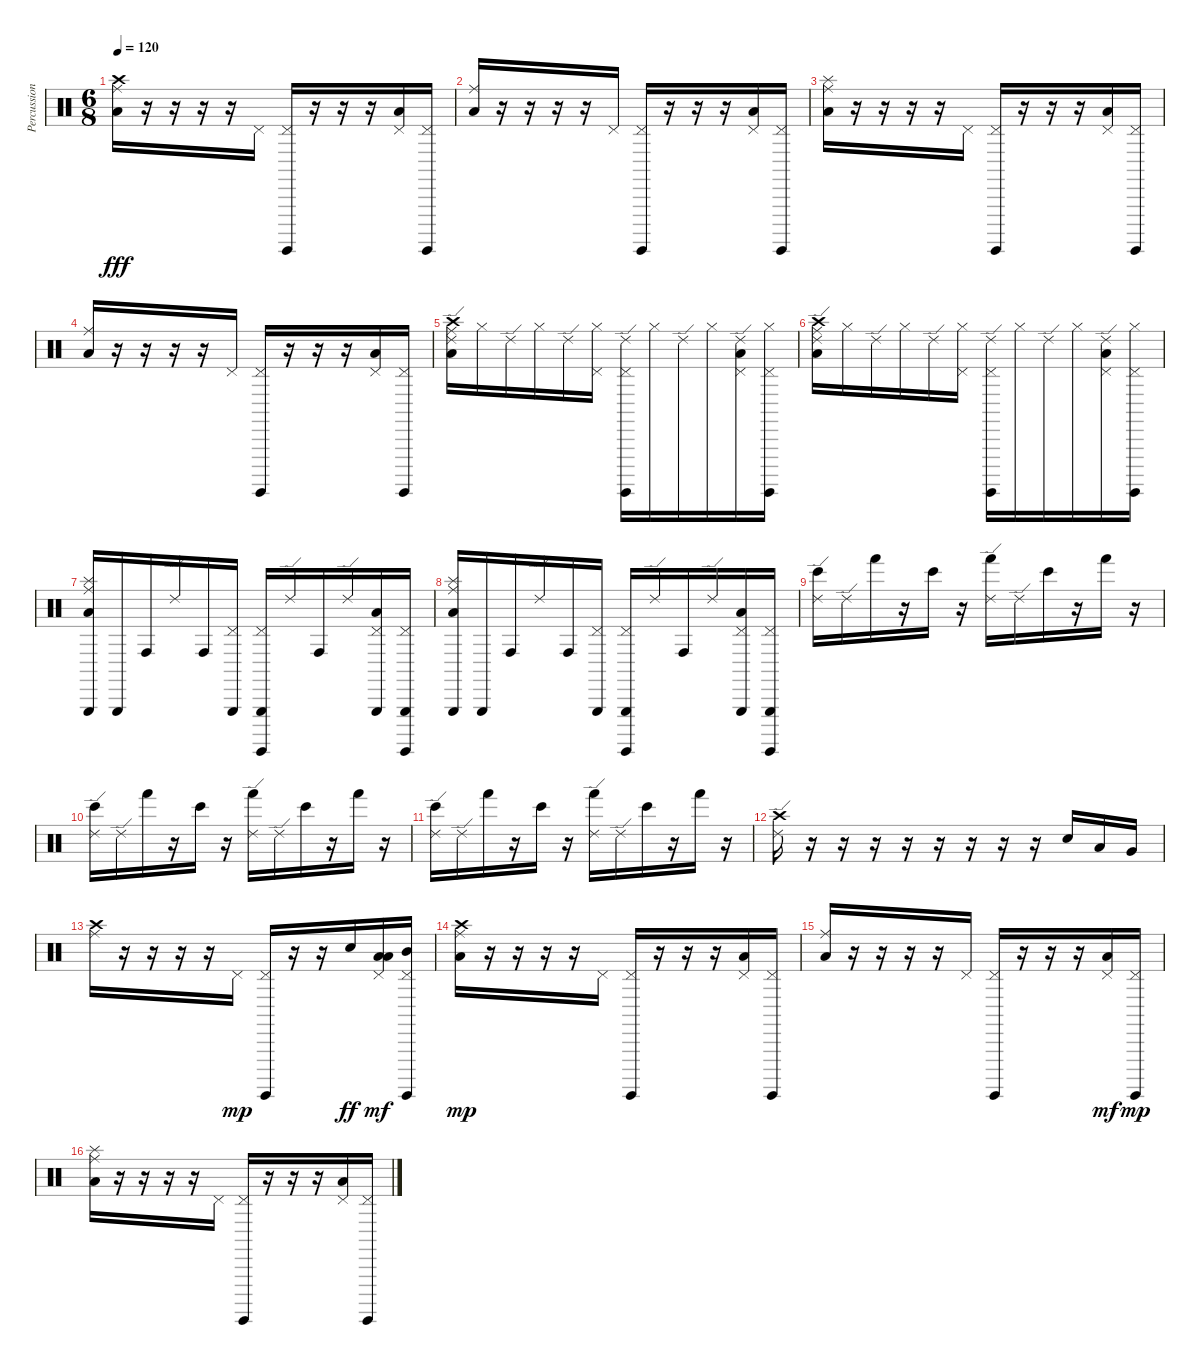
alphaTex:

\track ("Percussions" "Percussion") {instrument percussion}
\staff {score}
\articulation defaults
\ts (6 8)
\tempo 120
\clef neutral
\ks c
("Low Tom (hit)" "Ride (middle)" "Crash high (hit)").16{dy fff} r.16 r.16 r.16 r.16 "Pedal Hi-Hat (hit)".16 ("Surdo (hit)" "Pedal Hi-Hat (hit)").16 r.16 r.16 r.16 ("Low Tom (hit)" "Pedal Hi-Hat (hit)").16 ("Surdo (hit)" "Pedal Hi-Hat (hit)").16 |
("Low Tom (hit)" "Ride (middle)").16 r.16 r.16 r.16 r.16 "Pedal Hi-Hat (hit)".16 ("Surdo (hit)" "Pedal Hi-Hat (hit)").16 r.16 r.16 r.16 ("Low Tom (hit)" "Pedal Hi-Hat (hit)").16 ("Surdo (hit)" "Pedal Hi-Hat (hit)").16 |
("Low Tom (hit)" "Ride (middle)" "Splash (hit)").16 r.16 r.16 r.16 r.16 "Pedal Hi-Hat (hit)".16 ("Surdo (hit)" "Pedal Hi-Hat (hit)").16 r.16 r.16 r.16 ("Low Tom (hit)" "Pedal Hi-Hat (hit)").16 ("Surdo (hit)" "Pedal Hi-Hat (hit)").16 |
("Low Tom (hit)" "Ride (middle)").16 r.16 r.16 r.16 r.16 "Pedal Hi-Hat (hit)".16 ("Surdo (hit)" "Pedal Hi-Hat (hit)").16 r.16 r.16 r.16 ("Low Tom (hit)" "Pedal Hi-Hat (hit)").16 ("Surdo (hit)" "Pedal Hi-Hat (hit)").16 |
("Low Tom (hit)" "Ride (middle)" "Ride (edge) 2" "Crash high (hit)").16 "Hi-Hat (closed)".16 "Ride (edge) 2".16 "Hi-Hat (closed)".16 "Ride (edge) 2".16 ("Pedal Hi-Hat (hit)" "Hi-Hat (closed)").16 ("Surdo (hit)" "Pedal Hi-Hat (hit)" "Ride (edge) 2").16 "Hi-Hat (closed)".16 "Ride (edge) 2".16 "Hi-Hat (closed)".16 ("Low Tom (hit)" "Pedal Hi-Hat (hit)" "Ride (edge) 2").16 ("Surdo (hit)" "Pedal Hi-Hat (hit)" "Hi-Hat (closed)").16 |
("Low Tom (hit)" "Ride (middle)" "Ride (edge) 2" "Crash high (hit)").16 "Hi-Hat (closed)".16 "Ride (edge) 2".16 "Hi-Hat (closed)".16 "Ride (edge) 2".16 ("Pedal Hi-Hat (hit)" "Hi-Hat (closed)").16 ("Surdo (hit)" "Pedal Hi-Hat (hit)" "Ride (edge) 2").16 "Hi-Hat (closed)".16 "Ride (edge) 2".16 "Hi-Hat (closed)".16 ("Low Tom (hit)" "Pedal Hi-Hat (hit)" "Ride (edge) 2").16 ("Surdo (hit)" "Pedal Hi-Hat (hit)" "Hi-Hat (closed)").16 |
("Low Tom (hit)" "Ride (middle)" "Triangle (hit)" "Splash (hit)").16 "Triangle (hit)".16 "Conga high (hit)".16 "Ride (edge) 2".16 "Conga high (hit)".16 ("Pedal Hi-Hat (hit)" "Triangle (hit)").16 ("Surdo (hit)" "Pedal Hi-Hat (hit)" "Triangle (hit)").16 "Ride (edge) 2".16 "Conga high (hit)".16 "Ride (edge) 2".16 ("Low Tom (hit)" "Pedal Hi-Hat (hit)" "Triangle (hit)").16 ("Surdo (hit)" "Pedal Hi-Hat (hit)" "Triangle (hit)").16 |
("Low Tom (hit)" "Ride (middle)" "Triangle (hit)" "Splash (hit)").16 "Triangle (hit)".16 "Conga high (hit)".16 "Ride (edge) 2".16 "Conga high (hit)".16 ("Pedal Hi-Hat (hit)" "Triangle (hit)").16 ("Surdo (hit)" "Pedal Hi-Hat (hit)" "Triangle (hit)").16 "Ride (edge) 2".16 "Conga high (hit)".16 "Ride (edge) 2".16 ("Low Tom (hit)" "Pedal Hi-Hat (hit)" "Triangle (hit)").16 ("Surdo (hit)" "Pedal Hi-Hat (hit)" "Triangle (hit)").16 |
("Ride (edge) 2" "Bongo High (hit)").16 "Ride (edge) 2".16 "Hand (hit)".16 r.16 "Bongo High (hit)".16 r.16 ("Ride (edge) 2" "Hand (hit)").16 "Ride (edge) 2".16 "Bongo High (hit)".16 r.16 "Hand (hit)".16 r.16 |
("Ride (edge) 2" "Bongo High (hit)").16 "Ride (edge) 2".16 "Hand (hit)".16 r.16 "Bongo High (hit)".16 r.16 ("Ride (edge) 2" "Hand (hit)").16 "Ride (edge) 2".16 "Bongo High (hit)".16 r.16 "Hand (hit)".16 r.16 |
("Ride (edge) 2" "Bongo High (hit)").16 "Ride (edge) 2".16 "Hand (hit)".16 r.16 "Bongo High (hit)".16 r.16 ("Ride (edge) 2" "Hand (hit)").16 "Ride (edge) 2".16 "Bongo High (hit)".16 r.16 "Hand (hit)".16 r.16 |
("Ride (edge) 2" "Crash high (hit)").16 r.16 r.16 r.16 r.16 r.16 r.16 r.16 r.16 "Electric Snare (hit)".16 "Low Tom (hit)".16 "Very Low Tom (hit)".16 |
("Crash high (hit)" "Ride (middle)").16 r.16 r.16 r.16 r.16 "Pedal Hi-Hat (hit)".16{dy mp} ("Surdo (hit)" "Pedal Hi-Hat (hit)").16 r.16 r.16 "Electric Snare (hit)".16{dy ff} ("Low Tom (hit)" "Pedal Hi-Hat (hit)" "Low Floor Tom (hit)").16{dy mf} ("Surdo (hit)" "Pedal Hi-Hat (hit)" "Mid Tom (hit)").16 |
("Low Tom (hit)" "Ride (middle)" "Crash high (hit)").16{dy mp} r.16 r.16 r.16 r.16 "Pedal Hi-Hat (hit)".16 ("Surdo (hit)" "Pedal Hi-Hat (hit)").16 r.16 r.16 r.16 ("Low Tom (hit)" "Pedal Hi-Hat (hit)").16 ("Surdo (hit)" "Pedal Hi-Hat (hit)").16 |
("Low Tom (hit)" "Ride (middle)").16 r.16 r.16 r.16 r.16 "Pedal Hi-Hat (hit)".16 ("Surdo (hit)" "Pedal Hi-Hat (hit)").16 r.16 r.16 r.16 ("Low Tom (hit)" "Pedal Hi-Hat (hit)").16{dy mf} ("Surdo (hit)" "Pedal Hi-Hat (hit)").16{dy mp} |
("Low Tom (hit)" "Ride (middle)" "Splash (hit)").16 r.16 r.16 r.16 r.16 "Pedal Hi-Hat (hit)".16 ("Surdo (hit)" "Pedal Hi-Hat (hit)").16 r.16 r.16 r.16 ("Low Tom (hit)" "Pedal Hi-Hat (hit)").16 ("Surdo (hit)" "Pedal Hi-Hat (hit)").16
